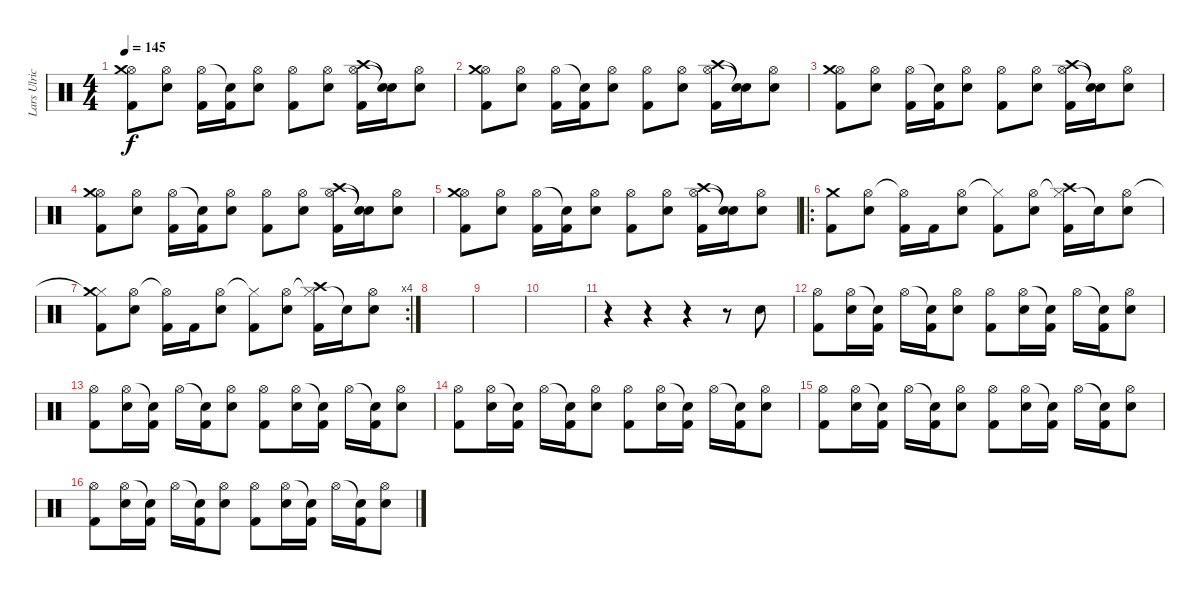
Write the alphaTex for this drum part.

\track ("Lars Ulrich" "Lars Ulric") {instrument percussion}
\staff {score}
\articulation defaults
\ts (4 4)
\tempo 145
\clef neutral
\ks c
("Hi-Hat (open)" "Crash medium (hit)" "Kick (hit) 2").8{dy f} ("Hi-Hat (open)" "Electric Snare (hit)").8 ("Hi-Hat (open)" "Kick (hit) 2").16 ("Snare (hit)"{t} "Kick (hit) 2").16 ("Hi-Hat (open)" "Electric Snare (hit)").8 ("Hi-Hat (open)" "Kick (hit) 2").8 ("Hi-Hat (open)" "Electric Snare (hit)").8 ("Hi-Hat (open)" "Crash high (hit)" "Kick (hit) 2").16 ("Snare (hit)"{t} "Snare (hit)"{t}).16 ("Hi-Hat (open)" "Electric Snare (hit)").8 |
("Hi-Hat (open)" "Crash medium (hit)" "Kick (hit) 2").8 ("Hi-Hat (open)" "Electric Snare (hit)").8 ("Hi-Hat (open)" "Kick (hit) 2").16 ("Snare (hit)"{t} "Kick (hit) 2").16 ("Hi-Hat (open)" "Electric Snare (hit)").8 ("Hi-Hat (open)" "Kick (hit) 2").8 ("Hi-Hat (open)" "Electric Snare (hit)").8 ("Hi-Hat (open)" "Crash high (hit)" "Kick (hit) 2").16 ("Snare (hit)"{t} "Snare (hit)"{t}).16 ("Hi-Hat (open)" "Electric Snare (hit)").8 |
("Hi-Hat (open)" "Crash medium (hit)" "Kick (hit) 2").8 ("Hi-Hat (open)" "Electric Snare (hit)").8 ("Hi-Hat (open)" "Kick (hit) 2").16 ("Snare (hit)"{t} "Kick (hit) 2").16 ("Hi-Hat (open)" "Electric Snare (hit)").8 ("Hi-Hat (open)" "Kick (hit) 2").8 ("Hi-Hat (open)" "Electric Snare (hit)").8 ("Hi-Hat (open)" "Crash high (hit)" "Kick (hit) 2").16 ("Snare (hit)"{t} "Snare (hit)"{t}).16 ("Hi-Hat (open)" "Electric Snare (hit)").8 |
("Hi-Hat (open)" "Crash medium (hit)" "Kick (hit) 2").8 ("Hi-Hat (open)" "Electric Snare (hit)").8 ("Hi-Hat (open)" "Kick (hit) 2").16 ("Snare (hit)"{t} "Kick (hit) 2").16 ("Hi-Hat (open)" "Electric Snare (hit)").8 ("Hi-Hat (open)" "Kick (hit) 2").8 ("Hi-Hat (open)" "Electric Snare (hit)").8 ("Hi-Hat (open)" "Crash high (hit)" "Kick (hit) 2").16 ("Snare (hit)"{t} "Snare (hit)"{t}).16 ("Hi-Hat (open)" "Electric Snare (hit)").8 |
("Hi-Hat (open)" "Crash medium (hit)" "Kick (hit) 2").8 ("Hi-Hat (open)" "Electric Snare (hit)").8 ("Hi-Hat (open)" "Kick (hit) 2").16 ("Snare (hit)"{t} "Kick (hit) 2").16 ("Hi-Hat (open)" "Electric Snare (hit)").8 ("Hi-Hat (open)" "Kick (hit) 2").8 ("Hi-Hat (open)" "Electric Snare (hit)").8 ("Hi-Hat (open)" "Crash high (hit)" "Kick (hit) 2").16 ("Snare (hit)"{t} "Snare (hit)"{t}).16 ("Hi-Hat (open)" "Electric Snare (hit)").8 |
\ro
("Crash medium (hit)" "Kick (hit) 2").8 ("Hi-Hat (open)" "Electric Snare (hit)").8 ("Hi-Hat (open)"{t} "Kick (hit) 2").16 "Kick (hit) 2".16 ("Hi-Hat (open)" "Electric Snare (hit)").8 ("Hi-Hat (closed)"{t} "Kick (hit) 2").8 ("Hi-Hat (open)" "Electric Snare (hit)").8 ("Hi-Hat (closed)"{t} "Crash high (hit)" "Kick (hit) 2").16 "Snare (hit)"{t}.16 ("Hi-Hat (open)" "Electric Snare (hit)").8 |
\rc 4
("Hi-Hat (closed)"{t} "Crash medium (hit)" "Kick (hit) 2").8 ("Hi-Hat (open)" "Electric Snare (hit)").8 ("Hi-Hat (open)"{t} "Kick (hit) 2").16 "Kick (hit) 2".16 ("Hi-Hat (open)" "Electric Snare (hit)").8 ("Hi-Hat (closed)"{t} "Kick (hit) 2").8 ("Hi-Hat (open)" "Electric Snare (hit)").8 ("Hi-Hat (closed)"{t} "Crash high (hit)" "Kick (hit) 2").16 "Snare (hit)"{t}.16 ("Hi-Hat (open)" "Electric Snare (hit)").8 |
|
|
|
r.4 r.4 r.4 r.8 "Electric Snare (hit)".8 |
("Hi-Hat (open)" "Kick (hit) 2").8 ("Hi-Hat (open)" "Electric Snare (hit)").16 ("Snare (hit)"{t} "Kick (hit) 2").16 "Hi-Hat (open)".16 ("Snare (hit)"{t} "Kick (hit) 2").16 ("Hi-Hat (open)" "Electric Snare (hit)").8 ("Hi-Hat (open)" "Kick (hit) 2").8 ("Hi-Hat (open)" "Electric Snare (hit)").16 ("Snare (hit)"{t} "Kick (hit) 2").16 "Hi-Hat (open)".16 ("Snare (hit)"{t} "Kick (hit) 2").16 ("Hi-Hat (open)" "Electric Snare (hit)").8 |
("Hi-Hat (open)" "Kick (hit) 2").8 ("Hi-Hat (open)" "Electric Snare (hit)").16 ("Snare (hit)"{t} "Kick (hit) 2").16 "Hi-Hat (open)".16 ("Snare (hit)"{t} "Kick (hit) 2").16 ("Hi-Hat (open)" "Electric Snare (hit)").8 ("Hi-Hat (open)" "Kick (hit) 2").8 ("Hi-Hat (open)" "Electric Snare (hit)").16 ("Snare (hit)"{t} "Kick (hit) 2").16 "Hi-Hat (open)".16 ("Snare (hit)"{t} "Kick (hit) 2").16 ("Hi-Hat (open)" "Electric Snare (hit)").8 |
("Hi-Hat (open)" "Kick (hit) 2").8 ("Hi-Hat (open)" "Electric Snare (hit)").16 ("Snare (hit)"{t} "Kick (hit) 2").16 "Hi-Hat (open)".16 ("Snare (hit)"{t} "Kick (hit) 2").16 ("Hi-Hat (open)" "Electric Snare (hit)").8 ("Hi-Hat (open)" "Kick (hit) 2").8 ("Hi-Hat (open)" "Electric Snare (hit)").16 ("Snare (hit)"{t} "Kick (hit) 2").16 "Hi-Hat (open)".16 ("Snare (hit)"{t} "Kick (hit) 2").16 ("Hi-Hat (open)" "Electric Snare (hit)").8 |
("Hi-Hat (open)" "Kick (hit) 2").8 ("Hi-Hat (open)" "Electric Snare (hit)").16 ("Snare (hit)"{t} "Kick (hit) 2").16 "Hi-Hat (open)".16 ("Snare (hit)"{t} "Kick (hit) 2").16 ("Hi-Hat (open)" "Electric Snare (hit)").8 ("Hi-Hat (open)" "Kick (hit) 2").8 ("Hi-Hat (open)" "Electric Snare (hit)").16 ("Snare (hit)"{t} "Kick (hit) 2").16 "Hi-Hat (open)".16 ("Snare (hit)"{t} "Kick (hit) 2").16 ("Hi-Hat (open)" "Electric Snare (hit)").8 |
("Hi-Hat (open)" "Kick (hit) 2").8 ("Hi-Hat (open)" "Electric Snare (hit)").16 ("Snare (hit)"{t} "Kick (hit) 2").16 "Hi-Hat (open)".16 ("Snare (hit)"{t} "Kick (hit) 2").16 ("Hi-Hat (open)" "Electric Snare (hit)").8 ("Hi-Hat (open)" "Kick (hit) 2").8 ("Hi-Hat (open)" "Electric Snare (hit)").16 ("Snare (hit)"{t} "Kick (hit) 2").16 "Hi-Hat (open)".16 ("Snare (hit)"{t} "Kick (hit) 2").16 ("Hi-Hat (open)" "Electric Snare (hit)").8
